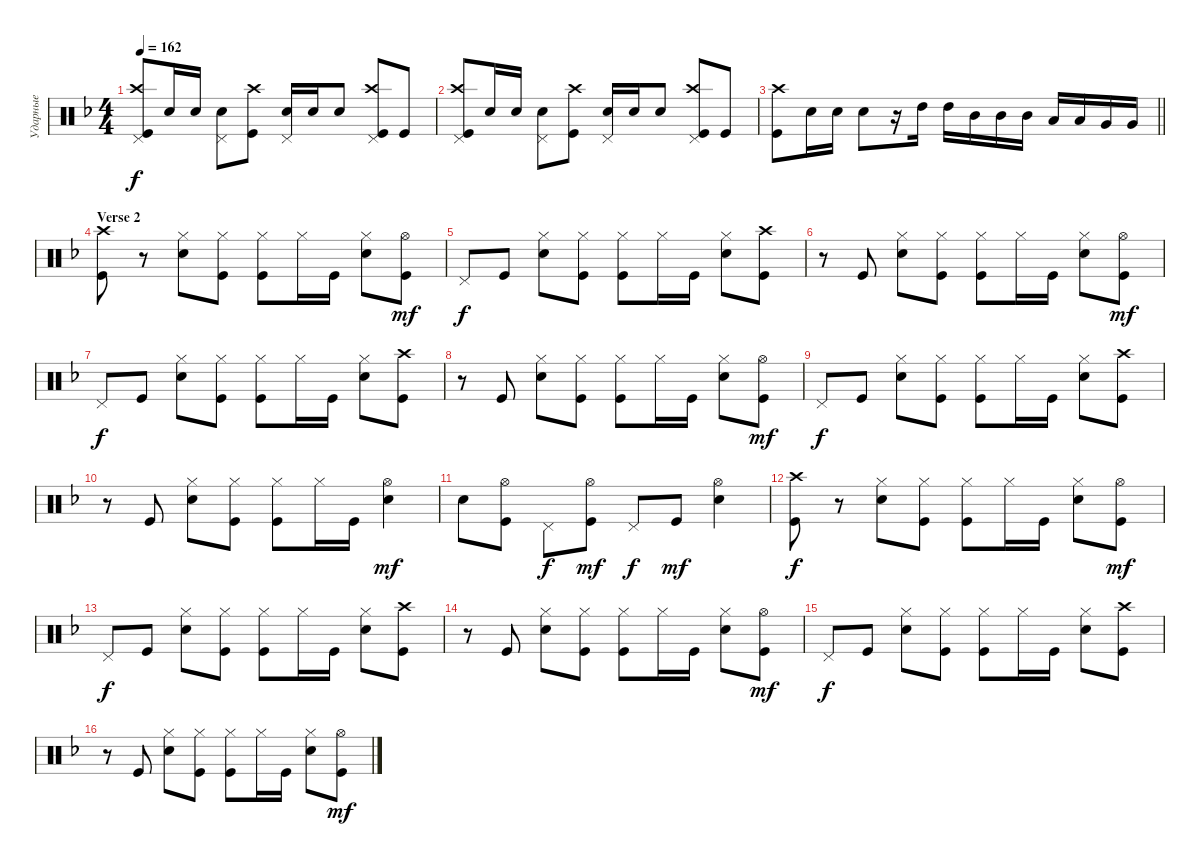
\track ("Ударные" "Ударные") {instrument percussion}
\staff {score}
\articulation defaults
\ts (4 4)
\tempo 162
\clef neutral
\ks dminor
("Kick (hit)" "Crash high (hit)" "Pedal Hi-Hat (hit)").8{dy f} "Snare (hit) 2".16 "Snare (hit) 2".16 ("Snare (hit) 2" "Pedal Hi-Hat (hit)").8 ("Kick (hit)" "Crash high (hit)").8 ("Snare (hit) 2" "Pedal Hi-Hat (hit)").16 "Snare (hit) 2".16 "Snare (hit) 2".8 ("Kick (hit)" "Crash high (hit)" "Pedal Hi-Hat (hit)").8 "Kick (hit)".8 |
("Kick (hit)" "Crash high (hit)" "Pedal Hi-Hat (hit)").8 "Snare (hit) 2".16 "Snare (hit) 2".16 ("Snare (hit) 2" "Pedal Hi-Hat (hit)").8 ("Kick (hit)" "Crash high (hit)").8 ("Snare (hit) 2" "Pedal Hi-Hat (hit)").16 "Snare (hit) 2".16 "Snare (hit) 2".8 ("Kick (hit)" "Crash high (hit)" "Pedal Hi-Hat (hit)").8 "Kick (hit)".8 |
\barLineRight lightlight
("Kick (hit)" "Crash high (hit)").8 "Snare (hit) 2".16 "Snare (hit) 2".16 "Snare (hit) 2".8 r.16 "High Tom (hit)".16 "High Tom (hit)".16 "Mid Tom (hit)".16 "Mid Tom (hit)".16 "Mid Tom (hit)".16 "Low Tom (hit)".16 "Low Tom (hit)".16 "Very Low Tom (hit)".16 "Very Low Tom (hit)".16 |
\section ("" "Verse 2")
("Kick (hit)" "Crash high (hit)").8 r.8 ("Hi-Hat (closed)" "Snare (hit) 2").8 ("Hi-Hat (closed)" "Kick (hit)").8 ("Hi-Hat (closed)" "Kick (hit)").8 "Hi-Hat (closed)".16 "Kick (hit)".16 ("Hi-Hat (closed)" "Snare (hit) 2").8 ("Hi-Hat (open)" "Kick (hit)").8{dy mf} |
"Pedal Hi-Hat (hit)".8{dy f} "Kick (hit)".8 ("Hi-Hat (closed)" "Snare (hit) 2").8 ("Hi-Hat (closed)" "Kick (hit)").8 ("Hi-Hat (closed)" "Kick (hit)").8 "Hi-Hat (closed)".16 "Kick (hit)".16 ("Hi-Hat (closed)" "Snare (hit) 2").8 ("Crash high (hit)" "Kick (hit)").8 |
r.8 "Kick (hit)".8 ("Hi-Hat (closed)" "Snare (hit) 2").8 ("Hi-Hat (closed)" "Kick (hit)").8 ("Hi-Hat (closed)" "Kick (hit)").8 "Hi-Hat (closed)".16 "Kick (hit)".16 ("Hi-Hat (closed)" "Snare (hit) 2").8 ("Hi-Hat (open)" "Kick (hit)").8{dy mf} |
"Pedal Hi-Hat (hit)".8{dy f} "Kick (hit)".8 ("Hi-Hat (closed)" "Snare (hit) 2").8 ("Hi-Hat (closed)" "Kick (hit)").8 ("Hi-Hat (closed)" "Kick (hit)").8 "Hi-Hat (closed)".16 "Kick (hit)".16 ("Hi-Hat (closed)" "Snare (hit) 2").8 ("Crash high (hit)" "Kick (hit)").8 |
r.8 "Kick (hit)".8 ("Hi-Hat (closed)" "Snare (hit) 2").8 ("Hi-Hat (closed)" "Kick (hit)").8 ("Hi-Hat (closed)" "Kick (hit)").8 "Hi-Hat (closed)".16 "Kick (hit)".16 ("Hi-Hat (closed)" "Snare (hit) 2").8 ("Hi-Hat (open)" "Kick (hit)").8{dy mf} |
"Pedal Hi-Hat (hit)".8{dy f} "Kick (hit)".8 ("Hi-Hat (closed)" "Snare (hit) 2").8 ("Hi-Hat (closed)" "Kick (hit)").8 ("Hi-Hat (closed)" "Kick (hit)").8 "Hi-Hat (closed)".16 "Kick (hit)".16 ("Hi-Hat (closed)" "Snare (hit) 2").8 ("Crash high (hit)" "Kick (hit)").8 |
r.8 "Kick (hit)".8 ("Hi-Hat (closed)" "Snare (hit) 2").8 ("Hi-Hat (closed)" "Kick (hit)").8 ("Hi-Hat (closed)" "Kick (hit)").8 "Hi-Hat (closed)".16 "Kick (hit)".16 ("Hi-Hat (open)" "Snare (hit) 2").4{dy mf} |
"Snare (hit) 2".8 ("Kick (hit)" "Hi-Hat (open)").8 "Pedal Hi-Hat (hit)".8{dy f} ("Hi-Hat (open)" "Kick (hit)").8{dy mf} "Pedal Hi-Hat (hit)".8{dy f} "Kick (hit)".8{dy mf} ("Snare (hit) 2" "Hi-Hat (open)").4 |
("Kick (hit)" "Crash high (hit)").8{dy f} r.8 ("Hi-Hat (closed)" "Snare (hit) 2").8 ("Hi-Hat (closed)" "Kick (hit)").8 ("Hi-Hat (closed)" "Kick (hit)").8 "Hi-Hat (closed)".16 "Kick (hit)".16 ("Hi-Hat (closed)" "Snare (hit) 2").8 ("Hi-Hat (open)" "Kick (hit)").8{dy mf} |
"Pedal Hi-Hat (hit)".8{dy f} "Kick (hit)".8 ("Hi-Hat (closed)" "Snare (hit) 2").8 ("Hi-Hat (closed)" "Kick (hit)").8 ("Hi-Hat (closed)" "Kick (hit)").8 "Hi-Hat (closed)".16 "Kick (hit)".16 ("Hi-Hat (closed)" "Snare (hit) 2").8 ("Crash high (hit)" "Kick (hit)").8 |
r.8 "Kick (hit)".8 ("Hi-Hat (closed)" "Snare (hit) 2").8 ("Hi-Hat (closed)" "Kick (hit)").8 ("Hi-Hat (closed)" "Kick (hit)").8 "Hi-Hat (closed)".16 "Kick (hit)".16 ("Hi-Hat (closed)" "Snare (hit) 2").8 ("Hi-Hat (open)" "Kick (hit)").8{dy mf} |
"Pedal Hi-Hat (hit)".8{dy f} "Kick (hit)".8 ("Hi-Hat (closed)" "Snare (hit) 2").8 ("Hi-Hat (closed)" "Kick (hit)").8 ("Hi-Hat (closed)" "Kick (hit)").8 "Hi-Hat (closed)".16 "Kick (hit)".16 ("Hi-Hat (closed)" "Snare (hit) 2").8 ("Crash high (hit)" "Kick (hit)").8 |
r.8 "Kick (hit)".8 ("Hi-Hat (closed)" "Snare (hit) 2").8 ("Hi-Hat (closed)" "Kick (hit)").8 ("Hi-Hat (closed)" "Kick (hit)").8 "Hi-Hat (closed)".16 "Kick (hit)".16 ("Hi-Hat (closed)" "Snare (hit) 2").8 ("Hi-Hat (open)" "Kick (hit)").8{dy mf}
